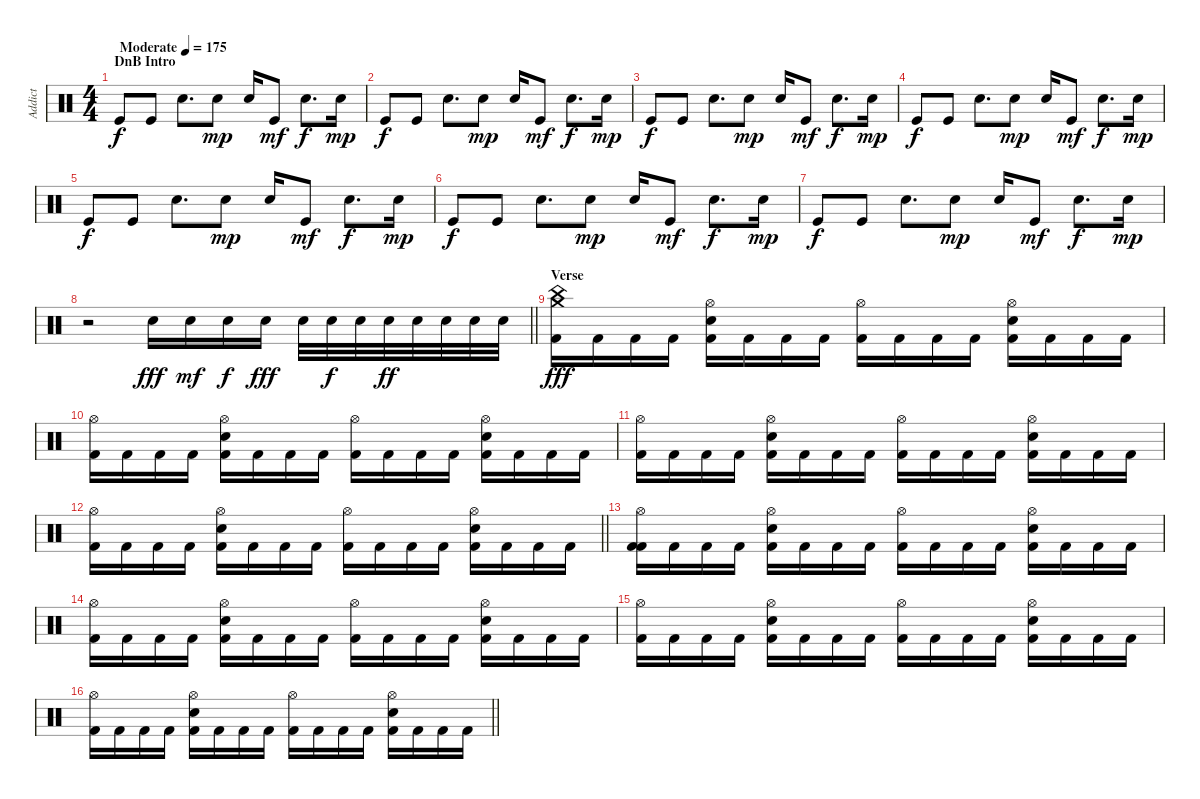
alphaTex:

\track ("Addict" "Addict") {instrument percussion}
\staff {score}
\articulation defaults
\ts (4 4)
\section ("" "DnB Intro")
\tempo (175 "Moderate")
\clef neutral
\ks c "Kick (hit)".8{dy f} "Kick (hit)".8 "Electric Snare (hit)".8{d} "Electric Snare (hit)".8{dy mp} "Electric Snare (hit)".16 "Kick (hit)".8{dy mf} "Electric Snare (hit)".8{d dy f} "Electric Snare (hit)".16{dy mp}
|
"Kick (hit)".8{dy f} "Kick (hit)".8 "Electric Snare (hit)".8{d} "Electric Snare (hit)".8{dy mp} "Electric Snare (hit)".16 "Kick (hit)".8{dy mf} "Electric Snare (hit)".8{d dy f} "Electric Snare (hit)".16{dy mp} |
"Kick (hit)".8{dy f} "Kick (hit)".8 "Electric Snare (hit)".8{d} "Electric Snare (hit)".8{dy mp} "Electric Snare (hit)".16 "Kick (hit)".8{dy mf} "Electric Snare (hit)".8{d dy f} "Electric Snare (hit)".16{dy mp} |
"Kick (hit)".8{dy f} "Kick (hit)".8 "Electric Snare (hit)".8{d} "Electric Snare (hit)".8{dy mp} "Electric Snare (hit)".16 "Kick (hit)".8{dy mf} "Electric Snare (hit)".8{d dy f} "Electric Snare (hit)".16{dy mp} |
"Kick (hit)".8{dy f} "Kick (hit)".8 "Electric Snare (hit)".8{d} "Electric Snare (hit)".8{dy mp} "Electric Snare (hit)".16 "Kick (hit)".8{dy mf} "Electric Snare (hit)".8{d dy f} "Electric Snare (hit)".16{dy mp} |
"Kick (hit)".8{dy f} "Kick (hit)".8 "Electric Snare (hit)".8{d} "Electric Snare (hit)".8{dy mp} "Electric Snare (hit)".16 "Kick (hit)".8{dy mf} "Electric Snare (hit)".8{d dy f} "Electric Snare (hit)".16{dy mp} |
"Kick (hit)".8{dy f} "Kick (hit)".8 "Electric Snare (hit)".8{d} "Electric Snare (hit)".8{dy mp} "Electric Snare (hit)".16 "Kick (hit)".8{dy mf} "Electric Snare (hit)".8{d dy f} "Electric Snare (hit)".16{dy mp} |
\barLineRight lightlight
r.2 "Snare (hit) 2".16{dy fff} "Snare (hit) 2".16{dy mf} "Snare (hit) 2".16{dy f} "Snare (hit) 2".16{dy fff} "Snare (hit) 2".32 "Snare (hit) 2".32{dy f} "Snare (hit) 2".32 "Snare (hit) 2".32{dy ff} "Snare (hit) 2".32 "Snare (hit) 2".32 "Snare (hit) 2".32 "Snare (hit) 2".32 |
\section ("" "Verse")
("Kick (hit) 2" "Crash medium (hit)" "China (hit)").16{dy fff} "Kick (hit) 2".16 "Kick (hit) 2".16 "Kick (hit) 2".16 ("Kick (hit) 2" "Snare (hit) 2" "Hi-Hat (open)").16 "Kick (hit) 2".16 "Kick (hit) 2".16 "Kick (hit) 2".16 ("Kick (hit) 2" "Hi-Hat (open)").16 "Kick (hit) 2".16 "Kick (hit) 2".16 "Kick (hit) 2".16 ("Kick (hit) 2" "Snare (hit) 2" "Hi-Hat (open)").16 "Kick (hit) 2".16 "Kick (hit) 2".16 "Kick (hit) 2".16 |
("Kick (hit) 2" "Hi-Hat (open)").16 "Kick (hit) 2".16 "Kick (hit) 2".16 "Kick (hit) 2".16 ("Kick (hit) 2" "Snare (hit) 2" "Hi-Hat (open)").16 "Kick (hit) 2".16 "Kick (hit) 2".16 "Kick (hit) 2".16 ("Kick (hit) 2" "Hi-Hat (open)").16 "Kick (hit) 2".16 "Kick (hit) 2".16 "Kick (hit) 2".16 ("Kick (hit) 2" "Snare (hit) 2" "Hi-Hat (open)").16 "Kick (hit) 2".16 "Kick (hit) 2".16 "Kick (hit) 2".16 |
("Kick (hit) 2" "Hi-Hat (open)").16 "Kick (hit) 2".16 "Kick (hit) 2".16 "Kick (hit) 2".16 ("Kick (hit) 2" "Snare (hit) 2" "Hi-Hat (open)").16 "Kick (hit) 2".16 "Kick (hit) 2".16 "Kick (hit) 2".16 ("Kick (hit) 2" "Hi-Hat (open)").16 "Kick (hit) 2".16 "Kick (hit) 2".16 "Kick (hit) 2".16 ("Kick (hit) 2" "Snare (hit) 2" "Hi-Hat (open)").16 "Kick (hit) 2".16 "Kick (hit) 2".16 "Kick (hit) 2".16 |
\barLineRight lightlight
("Kick (hit) 2" "Hi-Hat (open)").16 "Kick (hit) 2".16 "Kick (hit) 2".16 "Kick (hit) 2".16 ("Kick (hit) 2" "Snare (hit) 2" "Hi-Hat (open)").16 "Kick (hit) 2".16 "Kick (hit) 2".16 "Kick (hit) 2".16 ("Kick (hit) 2" "Hi-Hat (open)").16 "Kick (hit) 2".16 "Kick (hit) 2".16 "Kick (hit) 2".16 ("Kick (hit) 2" "Snare (hit) 2" "Hi-Hat (open)").16 "Kick (hit) 2".16 "Kick (hit) 2".16 "Kick (hit) 2".16 |
("Kick (hit) 2" "Hi-Hat (open)" "Kick (hit) 2").16 "Kick (hit) 2".16 "Kick (hit) 2".16 "Kick (hit) 2".16 ("Kick (hit) 2" "Snare (hit) 2" "Hi-Hat (open)").16 "Kick (hit) 2".16 "Kick (hit) 2".16 "Kick (hit) 2".16 ("Kick (hit) 2" "Hi-Hat (open)").16 "Kick (hit) 2".16 "Kick (hit) 2".16 "Kick (hit) 2".16 ("Kick (hit) 2" "Snare (hit) 2" "Hi-Hat (open)").16 "Kick (hit) 2".16 "Kick (hit) 2".16 "Kick (hit) 2".16 |
("Kick (hit) 2" "Hi-Hat (open)").16 "Kick (hit) 2".16 "Kick (hit) 2".16 "Kick (hit) 2".16 ("Kick (hit) 2" "Snare (hit) 2" "Hi-Hat (open)").16 "Kick (hit) 2".16 "Kick (hit) 2".16 "Kick (hit) 2".16 ("Kick (hit) 2" "Hi-Hat (open)").16 "Kick (hit) 2".16 "Kick (hit) 2".16 "Kick (hit) 2".16 ("Kick (hit) 2" "Snare (hit) 2" "Hi-Hat (open)").16 "Kick (hit) 2".16 "Kick (hit) 2".16 "Kick (hit) 2".16 |
("Kick (hit) 2" "Hi-Hat (open)").16 "Kick (hit) 2".16 "Kick (hit) 2".16 "Kick (hit) 2".16 ("Kick (hit) 2" "Snare (hit) 2" "Hi-Hat (open)").16 "Kick (hit) 2".16 "Kick (hit) 2".16 "Kick (hit) 2".16 ("Kick (hit) 2" "Hi-Hat (open)").16 "Kick (hit) 2".16 "Kick (hit) 2".16 "Kick (hit) 2".16 ("Kick (hit) 2" "Snare (hit) 2" "Hi-Hat (open)").16 "Kick (hit) 2".16 "Kick (hit) 2".16 "Kick (hit) 2".16 |
\barLineRight lightlight
("Kick (hit) 2" "Hi-Hat (open)").16 "Kick (hit) 2".16 "Kick (hit) 2".16 "Kick (hit) 2".16 ("Kick (hit) 2" "Snare (hit) 2" "Hi-Hat (open)").16 "Kick (hit) 2".16 "Kick (hit) 2".16 "Kick (hit) 2".16 ("Kick (hit) 2" "Hi-Hat (open)").16 "Kick (hit) 2".16 "Kick (hit) 2".16 "Kick (hit) 2".16 ("Kick (hit) 2" "Snare (hit) 2" "Hi-Hat (open)").16 "Kick (hit) 2".16 "Kick (hit) 2".16 "Kick (hit) 2".16
